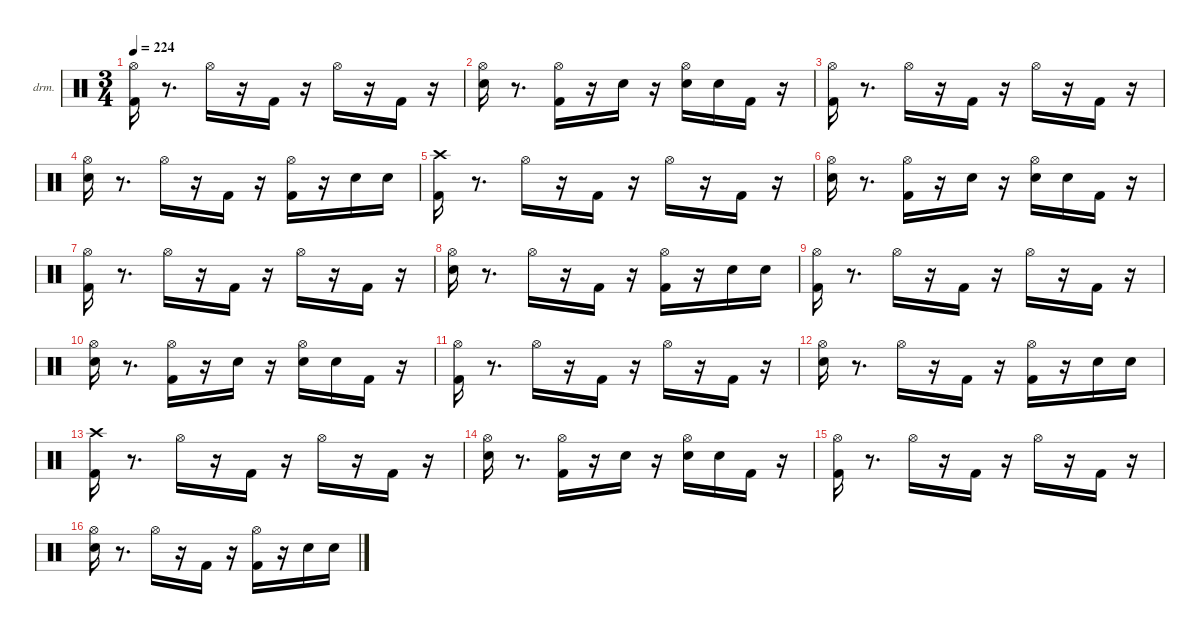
\hideDynamics
\bracketExtendMode nobrackets
\firstSystemTrackNameOrientation horizontal
\otherSystemsTrackNameOrientation horizontal
\track ("Drums" "drm.") {instrument percussion}
\staff {score}
\articulation defaults
\ts (3 4)
\tempo 224
\clef neutral
\ks aminor
("Kick (hit) 2" "Hi-Hat (open)"{acc #}).16{dy fff beam Down} r.8{d beam Down} "Hi-Hat (open)"{acc #}.16{dy mp beam Down} r.16{beam Down} "Kick (hit) 2".16{dy f beam Down} r.16{beam Down} "Hi-Hat (open)"{acc #}.16{dy mf beam Down} r.16{beam Down} "Kick (hit) 2".16{dy ff beam Down} r.16{beam Down} |
("Snare (hit) 2" "Hi-Hat (open)"{acc #}).16{beam Down} r.8{d beam Down} ("Kick (hit) 2" "Hi-Hat (open)"{acc #}).16{dy mf beam Down} r.16{beam Down} "Snare (hit) 2".16{beam Down} r.16{beam Down} ("Snare (hit) 2" "Hi-Hat (open)"{acc #}).16{dy p beam Down} "Snare (hit) 2".16{dy ppp beam Down} "Kick (hit) 2".16{dy mp beam Down} r.16{beam Down} |
("Kick (hit) 2" "Hi-Hat (open)"{acc #}).16{dy fff beam Down} r.8{d beam Down} "Hi-Hat (open)"{acc #}.16{dy mp beam Down} r.16{beam Down} "Kick (hit) 2".16{dy f beam Down} r.16{beam Down} "Hi-Hat (open)"{acc #}.16{dy mf beam Down} r.16{beam Down} "Kick (hit) 2".16{dy ff beam Down} r.16{beam Down} |
("Snare (hit) 2" "Hi-Hat (open)"{acc #}).16{beam Down} r.8{d beam Down} "Hi-Hat (open)"{acc #}.16{dy f beam Down} r.16{beam Down} "Kick (hit) 2".16{dy mf beam Down} r.16{beam Down} ("Kick (hit) 2" "Hi-Hat (open)"{acc #}).16{dy fff beam Down} r.16{beam Down} "Snare (hit) 2".16{dy pp beam Down} "Snare (hit) 2".16{dy ppp beam Down} |
("Kick (hit) 2" "Crash high (hit)"{acc #}).16{dy fff beam Down} r.8{d beam Down} "Hi-Hat (open)"{acc #}.16{dy mp beam Down} r.16{beam Down} "Kick (hit) 2".16{dy f beam Down} r.16{beam Down} "Hi-Hat (open)"{acc #}.16{beam Down} r.16{beam Down} "Kick (hit) 2".16{dy ff beam Down} r.16{beam Down} |
("Snare (hit) 2" "Hi-Hat (open)"{acc #}).16{beam Down} r.8{d beam Down} ("Kick (hit) 2" "Hi-Hat (open)"{acc #}).16{dy mf beam Down} r.16{beam Down} "Snare (hit) 2".16{beam Down} r.16{beam Down} ("Snare (hit) 2" "Hi-Hat (open)"{acc #}).16{dy p beam Down} "Snare (hit) 2".16{dy ppp beam Down} "Kick (hit) 2".16{dy mp beam Down} r.16{beam Down} |
("Kick (hit) 2" "Hi-Hat (open)"{acc #}).16{dy fff beam Down} r.8{d beam Down} "Hi-Hat (open)"{acc #}.16{dy mp beam Down} r.16{beam Down} "Kick (hit) 2".16{dy f beam Down} r.16{beam Down} "Hi-Hat (open)"{acc #}.16{beam Down} r.16{beam Down} "Kick (hit) 2".16{dy ff beam Down} r.16{beam Down} |
("Snare (hit) 2" "Hi-Hat (open)"{acc #}).16{beam Down} r.8{d beam Down} "Hi-Hat (open)"{acc #}.16{dy mf beam Down} r.16{beam Down} "Kick (hit) 2".16{beam Down} r.16{beam Down} ("Kick (hit) 2" "Hi-Hat (open)"{acc #}).16{dy fff beam Down} r.16{beam Down} "Snare (hit) 2".16{dy pp beam Down} "Snare (hit) 2".16{dy ppp beam Down} |
("Kick (hit) 2" "Hi-Hat (open)"{acc #}).16{dy fff beam Down} r.8{d beam Down} "Hi-Hat (open)"{acc #}.16{dy mp beam Down} r.16{beam Down} "Kick (hit) 2".16{dy f beam Down} r.16{beam Down} "Hi-Hat (open)"{acc #}.16{dy mf beam Down} r.16{beam Down} "Kick (hit) 2".16{dy ff beam Down} r.16{beam Down} |
("Snare (hit) 2" "Hi-Hat (open)"{acc #}).16{beam Down} r.8{d beam Down} ("Kick (hit) 2" "Hi-Hat (open)"{acc #}).16{dy mf beam Down} r.16{beam Down} "Snare (hit) 2".16{beam Down} r.16{beam Down} ("Snare (hit) 2" "Hi-Hat (open)"{acc #}).16{dy p beam Down} "Snare (hit) 2".16{dy ppp beam Down} "Kick (hit) 2".16{dy mp beam Down} r.16{beam Down} |
("Kick (hit) 2" "Hi-Hat (open)"{acc #}).16{dy fff beam Down} r.8{d beam Down} "Hi-Hat (open)"{acc #}.16{dy mp beam Down} r.16{beam Down} "Kick (hit) 2".16{dy f beam Down} r.16{beam Down} "Hi-Hat (open)"{acc #}.16{dy mf beam Down} r.16{beam Down} "Kick (hit) 2".16{dy ff beam Down} r.16{beam Down} |
("Snare (hit) 2" "Hi-Hat (open)"{acc #}).16{beam Down} r.8{d beam Down} "Hi-Hat (open)"{acc #}.16{dy f beam Down} r.16{beam Down} "Kick (hit) 2".16{dy mf beam Down} r.16{beam Down} ("Kick (hit) 2" "Hi-Hat (open)"{acc #}).16{dy fff beam Down} r.16{beam Down} "Snare (hit) 2".16{dy pp beam Down} "Snare (hit) 2".16{dy ppp beam Down} |
("Kick (hit) 2" "Crash high (hit)"{acc #}).16{dy fff beam Down} r.8{d beam Down} "Hi-Hat (open)"{acc #}.16{dy mp beam Down} r.16{beam Down} "Kick (hit) 2".16{dy f beam Down} r.16{beam Down} "Hi-Hat (open)"{acc #}.16{beam Down} r.16{beam Down} "Kick (hit) 2".16{dy ff beam Down} r.16{beam Down} |
("Snare (hit) 2" "Hi-Hat (open)"{acc #}).16{beam Down} r.8{d beam Down} ("Kick (hit) 2" "Hi-Hat (open)"{acc #}).16{dy mf beam Down} r.16{beam Down} "Snare (hit) 2".16{beam Down} r.16{beam Down} ("Snare (hit) 2" "Hi-Hat (open)"{acc #}).16{dy p beam Down} "Snare (hit) 2".16{dy ppp beam Down} "Kick (hit) 2".16{dy mp beam Down} r.16{beam Down} |
("Kick (hit) 2" "Hi-Hat (open)"{acc #}).16{dy fff beam Down} r.8{d beam Down} "Hi-Hat (open)"{acc #}.16{dy mp beam Down} r.16{beam Down} "Kick (hit) 2".16{dy f beam Down} r.16{beam Down} "Hi-Hat (open)"{acc #}.16{beam Down} r.16{beam Down} "Kick (hit) 2".16{dy ff beam Down} r.16{beam Down} |
("Snare (hit) 2" "Hi-Hat (open)"{acc #}).16{beam Down} r.8{d beam Down} "Hi-Hat (open)"{acc #}.16{dy mf beam Down} r.16{beam Down} "Kick (hit) 2".16{beam Down} r.16{beam Down} ("Kick (hit) 2" "Hi-Hat (open)"{acc #}).16{dy fff beam Down} r.16{beam Down} "Snare (hit) 2".16{dy pp beam Down} "Snare (hit) 2".16{dy ppp beam Down}
